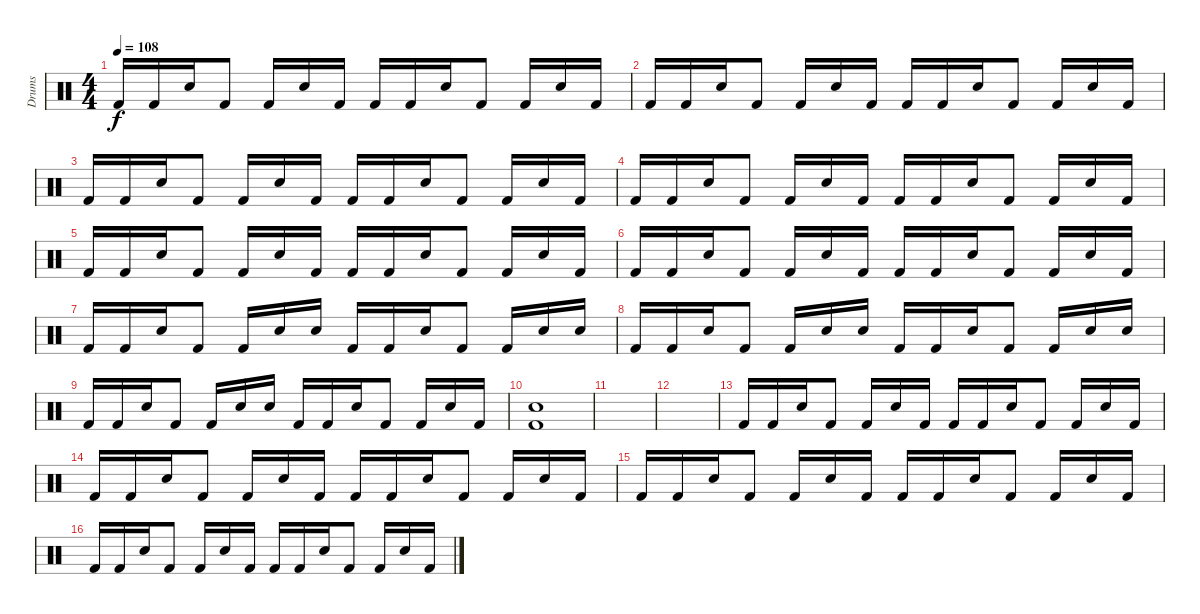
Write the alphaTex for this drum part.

\track ("Drums" "Drums") {instrument percussion}
\staff {score}
\articulation defaults
\ts (4 4)
\tempo 108
\clef neutral
\ks c "Kick (hit) 2".16{dy f} "Kick (hit) 2".16 "Snare (hit) 2".16 "Kick (hit) 2".8 "Kick (hit) 2".16 "Snare (hit) 2".16 "Kick (hit) 2".16 "Kick (hit) 2".16 "Kick (hit) 2".16 "Snare (hit) 2".16 "Kick (hit) 2".8 "Kick (hit) 2".16 "Snare (hit) 2".16 "Kick (hit) 2".16
|
"Kick (hit) 2".16 "Kick (hit) 2".16 "Snare (hit) 2".16 "Kick (hit) 2".8 "Kick (hit) 2".16 "Snare (hit) 2".16 "Kick (hit) 2".16 "Kick (hit) 2".16 "Kick (hit) 2".16 "Snare (hit) 2".16 "Kick (hit) 2".8 "Kick (hit) 2".16 "Snare (hit) 2".16 "Kick (hit) 2".16 |
"Kick (hit) 2".16 "Kick (hit) 2".16 "Snare (hit) 2".16 "Kick (hit) 2".8 "Kick (hit) 2".16 "Snare (hit) 2".16 "Kick (hit) 2".16 "Kick (hit) 2".16 "Kick (hit) 2".16 "Snare (hit) 2".16 "Kick (hit) 2".8 "Kick (hit) 2".16 "Snare (hit) 2".16 "Kick (hit) 2".16 |
"Kick (hit) 2".16 "Kick (hit) 2".16 "Snare (hit) 2".16 "Kick (hit) 2".8 "Kick (hit) 2".16 "Snare (hit) 2".16 "Kick (hit) 2".16 "Kick (hit) 2".16 "Kick (hit) 2".16 "Snare (hit) 2".16 "Kick (hit) 2".8 "Kick (hit) 2".16 "Snare (hit) 2".16 "Kick (hit) 2".16 |
"Kick (hit) 2".16 "Kick (hit) 2".16 "Snare (hit) 2".16 "Kick (hit) 2".8 "Kick (hit) 2".16 "Snare (hit) 2".16 "Kick (hit) 2".16 "Kick (hit) 2".16 "Kick (hit) 2".16 "Snare (hit) 2".16 "Kick (hit) 2".8 "Kick (hit) 2".16 "Snare (hit) 2".16 "Kick (hit) 2".16 |
"Kick (hit) 2".16 "Kick (hit) 2".16 "Snare (hit) 2".16 "Kick (hit) 2".8 "Kick (hit) 2".16 "Snare (hit) 2".16 "Kick (hit) 2".16 "Kick (hit) 2".16 "Kick (hit) 2".16 "Snare (hit) 2".16 "Kick (hit) 2".8 "Kick (hit) 2".16 "Snare (hit) 2".16 "Kick (hit) 2".16 |
"Kick (hit) 2".16 "Kick (hit) 2".16 "Snare (hit) 2".16 "Kick (hit) 2".8 "Kick (hit) 2".16 "Snare (hit) 2".16 "Snare (hit) 2".16 "Kick (hit) 2".16 "Kick (hit) 2".16 "Snare (hit) 2".16 "Kick (hit) 2".8 "Kick (hit) 2".16 "Snare (hit) 2".16 "Snare (hit) 2".16 |
"Kick (hit) 2".16 "Kick (hit) 2".16 "Snare (hit) 2".16 "Kick (hit) 2".8 "Kick (hit) 2".16 "Snare (hit) 2".16 "Snare (hit) 2".16 "Kick (hit) 2".16 "Kick (hit) 2".16 "Snare (hit) 2".16 "Kick (hit) 2".8 "Kick (hit) 2".16 "Snare (hit) 2".16 "Snare (hit) 2".16 |
"Kick (hit) 2".16 "Kick (hit) 2".16 "Snare (hit) 2".16 "Kick (hit) 2".8 "Kick (hit) 2".16 "Snare (hit) 2".16 "Snare (hit) 2".16 "Kick (hit) 2".16 "Kick (hit) 2".16 "Snare (hit) 2".16 "Kick (hit) 2".8 "Kick (hit) 2".16 "Snare (hit) 2".16 "Kick (hit) 2".16 |
("Kick (hit) 2" "Snare (hit) 2").1 |
|
|
"Kick (hit) 2".16 "Kick (hit) 2".16 "Snare (hit) 2".16 "Kick (hit) 2".8 "Kick (hit) 2".16 "Snare (hit) 2".16 "Kick (hit) 2".16 "Kick (hit) 2".16 "Kick (hit) 2".16 "Snare (hit) 2".16 "Kick (hit) 2".8 "Kick (hit) 2".16 "Snare (hit) 2".16 "Kick (hit) 2".16 |
"Kick (hit) 2".16 "Kick (hit) 2".16 "Snare (hit) 2".16 "Kick (hit) 2".8 "Kick (hit) 2".16 "Snare (hit) 2".16 "Kick (hit) 2".16 "Kick (hit) 2".16 "Kick (hit) 2".16 "Snare (hit) 2".16 "Kick (hit) 2".8 "Kick (hit) 2".16 "Snare (hit) 2".16 "Kick (hit) 2".16 |
"Kick (hit) 2".16 "Kick (hit) 2".16 "Snare (hit) 2".16 "Kick (hit) 2".8 "Kick (hit) 2".16 "Snare (hit) 2".16 "Kick (hit) 2".16 "Kick (hit) 2".16 "Kick (hit) 2".16 "Snare (hit) 2".16 "Kick (hit) 2".8 "Kick (hit) 2".16 "Snare (hit) 2".16 "Kick (hit) 2".16 |
"Kick (hit) 2".16 "Kick (hit) 2".16 "Snare (hit) 2".16 "Kick (hit) 2".8 "Kick (hit) 2".16 "Snare (hit) 2".16 "Kick (hit) 2".16 "Kick (hit) 2".16 "Kick (hit) 2".16 "Snare (hit) 2".16 "Kick (hit) 2".8 "Kick (hit) 2".16 "Snare (hit) 2".16 "Kick (hit) 2".16
